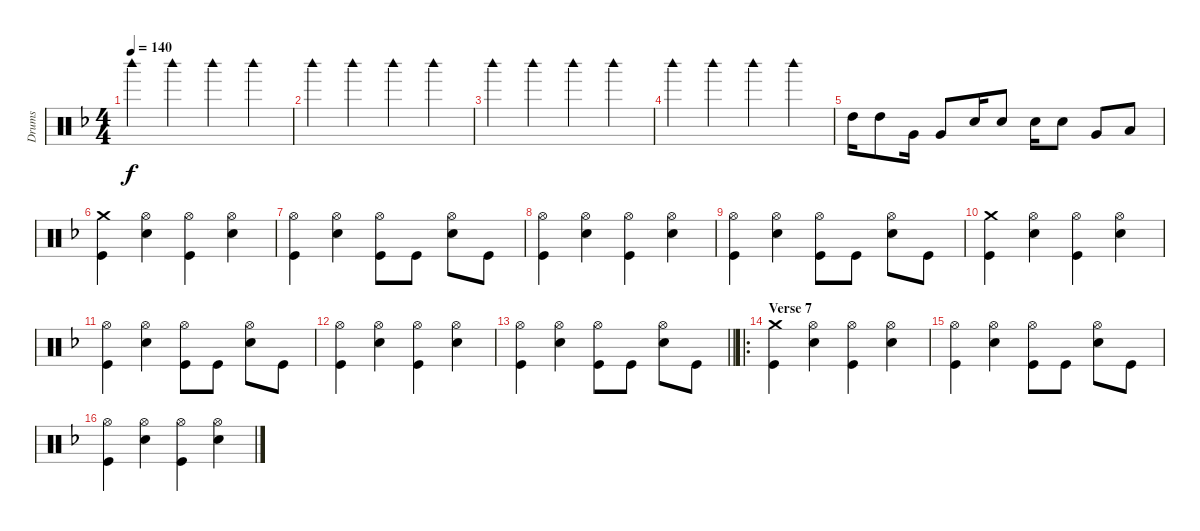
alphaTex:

\track ("Drums" "Drums") {instrument percussion}
\staff {score}
\articulation defaults
\ts (4 4)
\tempo 140
\clef neutral
\ks f "Woodblock high (hit)".4{dy f} "Woodblock high (hit)".4 "Woodblock high (hit)".4 "Woodblock high (hit)".4
|
"Woodblock high (hit)".4 "Woodblock high (hit)".4 "Woodblock high (hit)".4 "Woodblock high (hit)".4 |
"Woodblock high (hit)".4 "Woodblock high (hit)".4 "Woodblock high (hit)".4 "Woodblock high (hit)".4 |
"Woodblock high (hit)".4 "Woodblock high (hit)".4 "Woodblock high (hit)".4 "Woodblock high (hit)".4 |
"High Tom (hit)".16 "High Tom (hit)".8 "Very Low Tom (hit)".16 "Very Low Tom (hit)".8 "Snare (hit) 2".16 "Snare (hit) 2".8 "Snare (hit) 2".16 "Snare (hit) 2".8 "Very Low Tom (hit)".8 "Low Floor Tom (hit)".8 |
("Crash medium (hit)" "Kick (hit)").4 ("Hi-Hat (open)" "Snare (hit) 2").4 ("Hi-Hat (open)" "Kick (hit)").4 ("Hi-Hat (open)" "Snare (hit) 2").4 |
("Hi-Hat (open)" "Kick (hit)").4 ("Hi-Hat (open)" "Snare (hit) 2").4 ("Hi-Hat (open)" "Kick (hit)").8 "Kick (hit)".8 ("Hi-Hat (open)" "Snare (hit) 2").8 "Kick (hit)".8 |
("Hi-Hat (open)" "Kick (hit)").4 ("Hi-Hat (open)" "Snare (hit) 2").4 ("Hi-Hat (open)" "Kick (hit)").4 ("Hi-Hat (open)" "Snare (hit) 2").4 |
("Hi-Hat (open)" "Kick (hit)").4 ("Hi-Hat (open)" "Snare (hit) 2").4 ("Hi-Hat (open)" "Kick (hit)").8 "Kick (hit)".8 ("Hi-Hat (open)" "Snare (hit) 2").8 "Kick (hit)".8 |
("Crash medium (hit)" "Kick (hit)").4 ("Hi-Hat (open)" "Snare (hit) 2").4 ("Hi-Hat (open)" "Kick (hit)").4 ("Hi-Hat (open)" "Snare (hit) 2").4 |
("Hi-Hat (open)" "Kick (hit)").4 ("Hi-Hat (open)" "Snare (hit) 2").4 ("Hi-Hat (open)" "Kick (hit)").8 "Kick (hit)".8 ("Hi-Hat (open)" "Snare (hit) 2").8 "Kick (hit)".8 |
("Hi-Hat (open)" "Kick (hit)").4 ("Hi-Hat (open)" "Snare (hit) 2").4 ("Hi-Hat (open)" "Kick (hit)").4 ("Hi-Hat (open)" "Snare (hit) 2").4 |
\barLineRight lightlight
("Hi-Hat (open)" "Kick (hit)").4 ("Hi-Hat (open)" "Snare (hit) 2").4 ("Hi-Hat (open)" "Kick (hit)").8 "Kick (hit)".8 ("Hi-Hat (open)" "Snare (hit) 2").8 "Kick (hit)".8 |
\ro
\section ("" "Verse 7")
("Crash medium (hit)" "Kick (hit)").4 ("Hi-Hat (open)" "Snare (hit) 2").4 ("Hi-Hat (open)" "Kick (hit)").4 ("Hi-Hat (open)" "Snare (hit) 2").4 |
("Hi-Hat (open)" "Kick (hit)").4 ("Hi-Hat (open)" "Snare (hit) 2").4 ("Hi-Hat (open)" "Kick (hit)").8 "Kick (hit)".8 ("Hi-Hat (open)" "Snare (hit) 2").8 "Kick (hit)".8 |
("Hi-Hat (open)" "Kick (hit)").4 ("Hi-Hat (open)" "Snare (hit) 2").4 ("Hi-Hat (open)" "Kick (hit)").4 ("Hi-Hat (open)" "Snare (hit) 2").4
